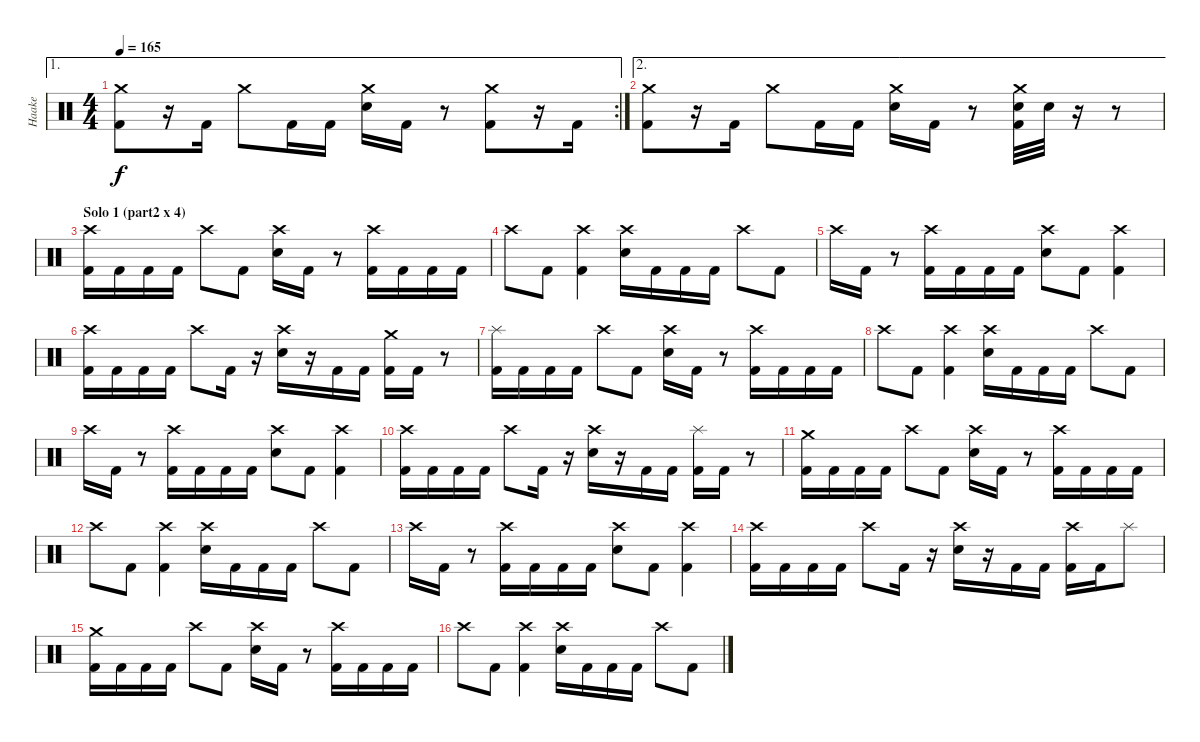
\track ("Haake" "Haake") {instrument percussion}
\staff {score}
\articulation defaults
\ae 1
\rc 2
\ts (4 4)
\tempo 165
\clef neutral
\ks c
("Crash medium (hit)" "Kick (hit) 2").8{dy f} r.16 "Kick (hit) 2".16 "Crash medium (hit)".8 "Kick (hit) 2".16 "Kick (hit) 2".16 ("Crash medium (hit)" "Electric Snare (hit)").16 "Kick (hit) 2".16 r.8 ("Crash medium (hit)" "Kick (hit) 2").8 r.16 "Kick (hit) 2".16 |
\ae 2
("Crash medium (hit)" "Kick (hit) 2").8 r.16 "Kick (hit) 2".16 "Crash medium (hit)".8 "Kick (hit) 2".16 "Kick (hit) 2".16 ("Crash medium (hit)" "Electric Snare (hit)").16 "Kick (hit) 2".16 r.8 ("Crash medium (hit)" "Electric Snare (hit)" "Kick (hit) 2").32 "Electric Snare (hit)".32 r.16 r.8 |
\section ("" "Solo 1 (part2 x 4)")
("Crash high (hit)" "Kick (hit) 2").16 "Kick (hit) 2".16 "Kick (hit) 2".16 "Kick (hit) 2".16 "Crash high (hit)".8 "Kick (hit) 2".8 ("Crash high (hit)" "Electric Snare (hit)").16 "Kick (hit) 2".16 r.8 ("Crash high (hit)" "Kick (hit) 2").16 "Kick (hit) 2".16 "Kick (hit) 2".16 "Kick (hit) 2".16 |
"Crash high (hit)".8 "Kick (hit) 2".8 ("Crash high (hit)" "Kick (hit) 2").4 ("Crash high (hit)" "Electric Snare (hit)").16 "Kick (hit) 2".16 "Kick (hit) 2".16 "Kick (hit) 2".16 "Crash high (hit)".8 "Kick (hit) 2".8 |
"Crash high (hit)".16 "Kick (hit) 2".16 r.8 ("Crash high (hit)" "Kick (hit) 2").16 "Kick (hit) 2".16 "Kick (hit) 2".16 "Kick (hit) 2".16 ("Crash high (hit)" "Electric Snare (hit)").8 "Kick (hit) 2".8 ("Crash high (hit)" "Kick (hit) 2").4 |
("Crash high (hit)" "Kick (hit) 2").16 "Kick (hit) 2".16 "Kick (hit) 2".16 "Kick (hit) 2".16 "Crash high (hit)".8 "Kick (hit) 2".16 r.16 ("Crash high (hit)" "Electric Snare (hit)").16 r.16 "Kick (hit) 2".16 "Kick (hit) 2".16 ("Crash medium (hit)" "Kick (hit) 2").16 "Kick (hit) 2".16 r.8 |
("Splash (hit)" "Kick (hit) 2").16 "Kick (hit) 2".16 "Kick (hit) 2".16 "Kick (hit) 2".16 "Crash high (hit)".8 "Kick (hit) 2".8 ("Crash high (hit)" "Electric Snare (hit)").16 "Kick (hit) 2".16 r.8 ("Crash high (hit)" "Kick (hit) 2").16 "Kick (hit) 2".16 "Kick (hit) 2".16 "Kick (hit) 2".16 |
"Crash high (hit)".8 "Kick (hit) 2".8 ("Crash high (hit)" "Kick (hit) 2").4 ("Crash high (hit)" "Electric Snare (hit)").16 "Kick (hit) 2".16 "Kick (hit) 2".16 "Kick (hit) 2".16 "Crash high (hit)".8 "Kick (hit) 2".8 |
"Crash high (hit)".16 "Kick (hit) 2".16 r.8 ("Crash high (hit)" "Kick (hit) 2").16 "Kick (hit) 2".16 "Kick (hit) 2".16 "Kick (hit) 2".16 ("Crash high (hit)" "Electric Snare (hit)").8 "Kick (hit) 2".8 ("Crash high (hit)" "Kick (hit) 2").4 |
("Crash high (hit)" "Kick (hit) 2").16 "Kick (hit) 2".16 "Kick (hit) 2".16 "Kick (hit) 2".16 "Crash high (hit)".8 "Kick (hit) 2".16 r.16 ("Crash high (hit)" "Electric Snare (hit)").16 r.16 "Kick (hit) 2".16 "Kick (hit) 2".16 ("Splash (hit)" "Kick (hit) 2").16 "Kick (hit) 2".16 r.8 |
("Crash medium (hit)" "Kick (hit) 2").16 "Kick (hit) 2".16 "Kick (hit) 2".16 "Kick (hit) 2".16 "Crash high (hit)".8 "Kick (hit) 2".8 ("Crash high (hit)" "Electric Snare (hit)").16 "Kick (hit) 2".16 r.8 ("Crash high (hit)" "Kick (hit) 2").16 "Kick (hit) 2".16 "Kick (hit) 2".16 "Kick (hit) 2".16 |
"Crash high (hit)".8 "Kick (hit) 2".8 ("Crash high (hit)" "Kick (hit) 2").4 ("Crash high (hit)" "Electric Snare (hit)").16 "Kick (hit) 2".16 "Kick (hit) 2".16 "Kick (hit) 2".16 "Crash high (hit)".8 "Kick (hit) 2".8 |
"Crash high (hit)".16 "Kick (hit) 2".16 r.8 ("Crash high (hit)" "Kick (hit) 2").16 "Kick (hit) 2".16 "Kick (hit) 2".16 "Kick (hit) 2".16 ("Crash high (hit)" "Electric Snare (hit)").8 "Kick (hit) 2".8 ("Crash high (hit)" "Kick (hit) 2").4 |
("Crash high (hit)" "Kick (hit) 2").16 "Kick (hit) 2".16 "Kick (hit) 2".16 "Kick (hit) 2".16 "Crash high (hit)".8 "Kick (hit) 2".16 r.16 ("Crash high (hit)" "Electric Snare (hit)").16 r.16 "Kick (hit) 2".16 "Kick (hit) 2".16 ("Crash high (hit)" "Kick (hit) 2").16 "Kick (hit) 2".16 "Splash (hit)".8 |
("Crash medium (hit)" "Kick (hit) 2").16 "Kick (hit) 2".16 "Kick (hit) 2".16 "Kick (hit) 2".16 "Crash high (hit)".8 "Kick (hit) 2".8 ("Crash high (hit)" "Electric Snare (hit)").16 "Kick (hit) 2".16 r.8 ("Crash high (hit)" "Kick (hit) 2").16 "Kick (hit) 2".16 "Kick (hit) 2".16 "Kick (hit) 2".16 |
"Crash high (hit)".8 "Kick (hit) 2".8 ("Crash high (hit)" "Kick (hit) 2").4 ("Crash high (hit)" "Electric Snare (hit)").16 "Kick (hit) 2".16 "Kick (hit) 2".16 "Kick (hit) 2".16 "Crash high (hit)".8 "Kick (hit) 2".8
